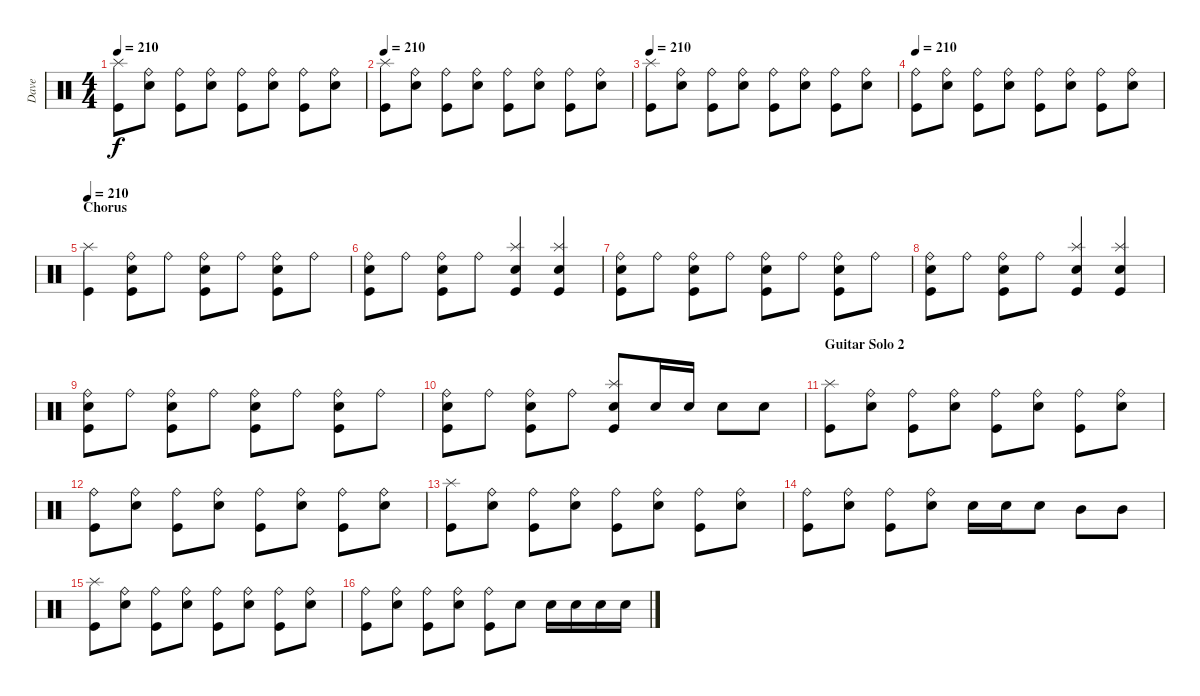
\track ("Dave" "Dave") {instrument percussion}
\staff {score}
\articulation defaults
\ts (4 4)
\tempo 210
\clef neutral
\ks c
("Kick (hit)" "Splash (hit)").8{dy f} ("Electric Snare (hit)" "Ride (bell)").8 ("Kick (hit)" "Ride (bell)").8 ("Electric Snare (hit)" "Ride (bell)").8 ("Kick (hit)" "Ride (bell)").8 ("Electric Snare (hit)" "Ride (bell)").8 ("Kick (hit)" "Ride (bell)").8 ("Electric Snare (hit)" "Ride (bell)").8 |
\tempo 210
("Kick (hit)" "Splash (hit)").8 ("Electric Snare (hit)" "Ride (bell)").8 ("Kick (hit)" "Ride (bell)").8 ("Electric Snare (hit)" "Ride (bell)").8 ("Kick (hit)" "Ride (bell)").8 ("Electric Snare (hit)" "Ride (bell)").8 ("Kick (hit)" "Ride (bell)").8 ("Electric Snare (hit)" "Ride (bell)").8 |
\tempo 210
("Kick (hit)" "Splash (hit)").8 ("Electric Snare (hit)" "Ride (bell)").8 ("Kick (hit)" "Ride (bell)").8 ("Electric Snare (hit)" "Ride (bell)").8 ("Kick (hit)" "Ride (bell)").8 ("Electric Snare (hit)" "Ride (bell)").8 ("Kick (hit)" "Ride (bell)").8 ("Electric Snare (hit)" "Ride (bell)").8 |
\tempo 210
("Kick (hit)" "Ride (bell)").8 ("Electric Snare (hit)" "Ride (bell)").8 ("Kick (hit)" "Ride (bell)").8 ("Electric Snare (hit)" "Ride (bell)").8 ("Kick (hit)" "Ride (bell)").8 ("Electric Snare (hit)" "Ride (bell)").8 ("Kick (hit)" "Ride (bell)").8 ("Electric Snare (hit)" "Ride (bell)").8 |
\section ("" "Chorus")
\tempo 210
("Kick (hit)" "Splash (hit)").4 ("Kick (hit)" "Electric Snare (hit)" "Ride (bell)").8 "Ride (bell)".8 ("Kick (hit)" "Electric Snare (hit)" "Ride (bell)").8 "Ride (bell)".8 ("Kick (hit)" "Electric Snare (hit)" "Ride (bell)").8 "Ride (bell)".8 |
("Kick (hit)" "Electric Snare (hit)" "Ride (bell)").8 "Ride (bell)".8 ("Kick (hit)" "Electric Snare (hit)" "Ride (bell)").8 "Ride (bell)".8 ("Kick (hit)" "Electric Snare (hit)" "Splash (hit)").4 ("Kick (hit)" "Electric Snare (hit)" "Splash (hit)").4 |
("Kick (hit)" "Electric Snare (hit)" "Ride (bell)").8 "Ride (bell)".8 ("Kick (hit)" "Electric Snare (hit)" "Ride (bell)").8 "Ride (bell)".8 ("Kick (hit)" "Electric Snare (hit)" "Ride (bell)").8 "Ride (bell)".8 ("Kick (hit)" "Electric Snare (hit)" "Ride (bell)").8 "Ride (bell)".8 |
("Kick (hit)" "Electric Snare (hit)" "Ride (bell)").8 "Ride (bell)".8 ("Kick (hit)" "Electric Snare (hit)" "Ride (bell)").8 "Ride (bell)".8 ("Kick (hit)" "Electric Snare (hit)" "Splash (hit)").4 ("Kick (hit)" "Electric Snare (hit)" "Splash (hit)").4 |
("Kick (hit)" "Electric Snare (hit)" "Ride (bell)").8 "Ride (bell)".8 ("Kick (hit)" "Electric Snare (hit)" "Ride (bell)").8 "Ride (bell)".8 ("Kick (hit)" "Electric Snare (hit)" "Ride (bell)").8 "Ride (bell)".8 ("Kick (hit)" "Electric Snare (hit)" "Ride (bell)").8 "Ride (bell)".8 |
("Kick (hit)" "Electric Snare (hit)" "Ride (bell)").8 "Ride (bell)".8 ("Kick (hit)" "Electric Snare (hit)" "Ride (bell)").8 "Ride (bell)".8 ("Kick (hit)" "Electric Snare (hit)" "Splash (hit)").8 "Electric Snare (hit)".16 "Electric Snare (hit)".16 "Electric Snare (hit)".8 "Electric Snare (hit)".8 |
\section ("" "Guitar Solo 2")
("Kick (hit)" "Splash (hit)").8 ("Electric Snare (hit)" "Ride (bell)").8 ("Kick (hit)" "Ride (bell)").8 ("Electric Snare (hit)" "Ride (bell)").8 ("Kick (hit)" "Ride (bell)").8 ("Electric Snare (hit)" "Ride (bell)").8 ("Kick (hit)" "Ride (bell)").8 ("Electric Snare (hit)" "Ride (bell)").8 |
("Kick (hit)" "Ride (bell)").8 ("Electric Snare (hit)" "Ride (bell)").8 ("Kick (hit)" "Ride (bell)").8 ("Electric Snare (hit)" "Ride (bell)").8 ("Kick (hit)" "Ride (bell)").8 ("Electric Snare (hit)" "Ride (bell)").8 ("Kick (hit)" "Ride (bell)").8 ("Electric Snare (hit)" "Ride (bell)").8 |
("Kick (hit)" "Splash (hit)").8 ("Electric Snare (hit)" "Ride (bell)").8 ("Kick (hit)" "Ride (bell)").8 ("Electric Snare (hit)" "Ride (bell)").8 ("Kick (hit)" "Ride (bell)").8 ("Electric Snare (hit)" "Ride (bell)").8 ("Kick (hit)" "Ride (bell)").8 ("Electric Snare (hit)" "Ride (bell)").8 |
("Kick (hit)" "Ride (bell)").8 ("Electric Snare (hit)" "Ride (bell)").8 ("Kick (hit)" "Ride (bell)").8 ("Electric Snare (hit)" "Ride (bell)").8 "Electric Snare (hit)".16 "Electric Snare (hit)".16 "Electric Snare (hit)".8 "Mid Tom (hit)".8 "Mid Tom (hit)".8 |
("Kick (hit)" "Splash (hit)").8 ("Electric Snare (hit)" "Ride (bell)").8 ("Kick (hit)" "Ride (bell)").8 ("Electric Snare (hit)" "Ride (bell)").8 ("Kick (hit)" "Ride (bell)").8 ("Electric Snare (hit)" "Ride (bell)").8 ("Kick (hit)" "Ride (bell)").8 ("Electric Snare (hit)" "Ride (bell)").8 |
("Kick (hit)" "Ride (bell)").8 ("Electric Snare (hit)" "Ride (bell)").8 ("Kick (hit)" "Ride (bell)").8 ("Electric Snare (hit)" "Ride (bell)").8 ("Kick (hit)" "Ride (bell)").8 "Electric Snare (hit)".8 "Electric Snare (hit)".16 "Electric Snare (hit)".16 "Electric Snare (hit)".16 "Electric Snare (hit)".16
